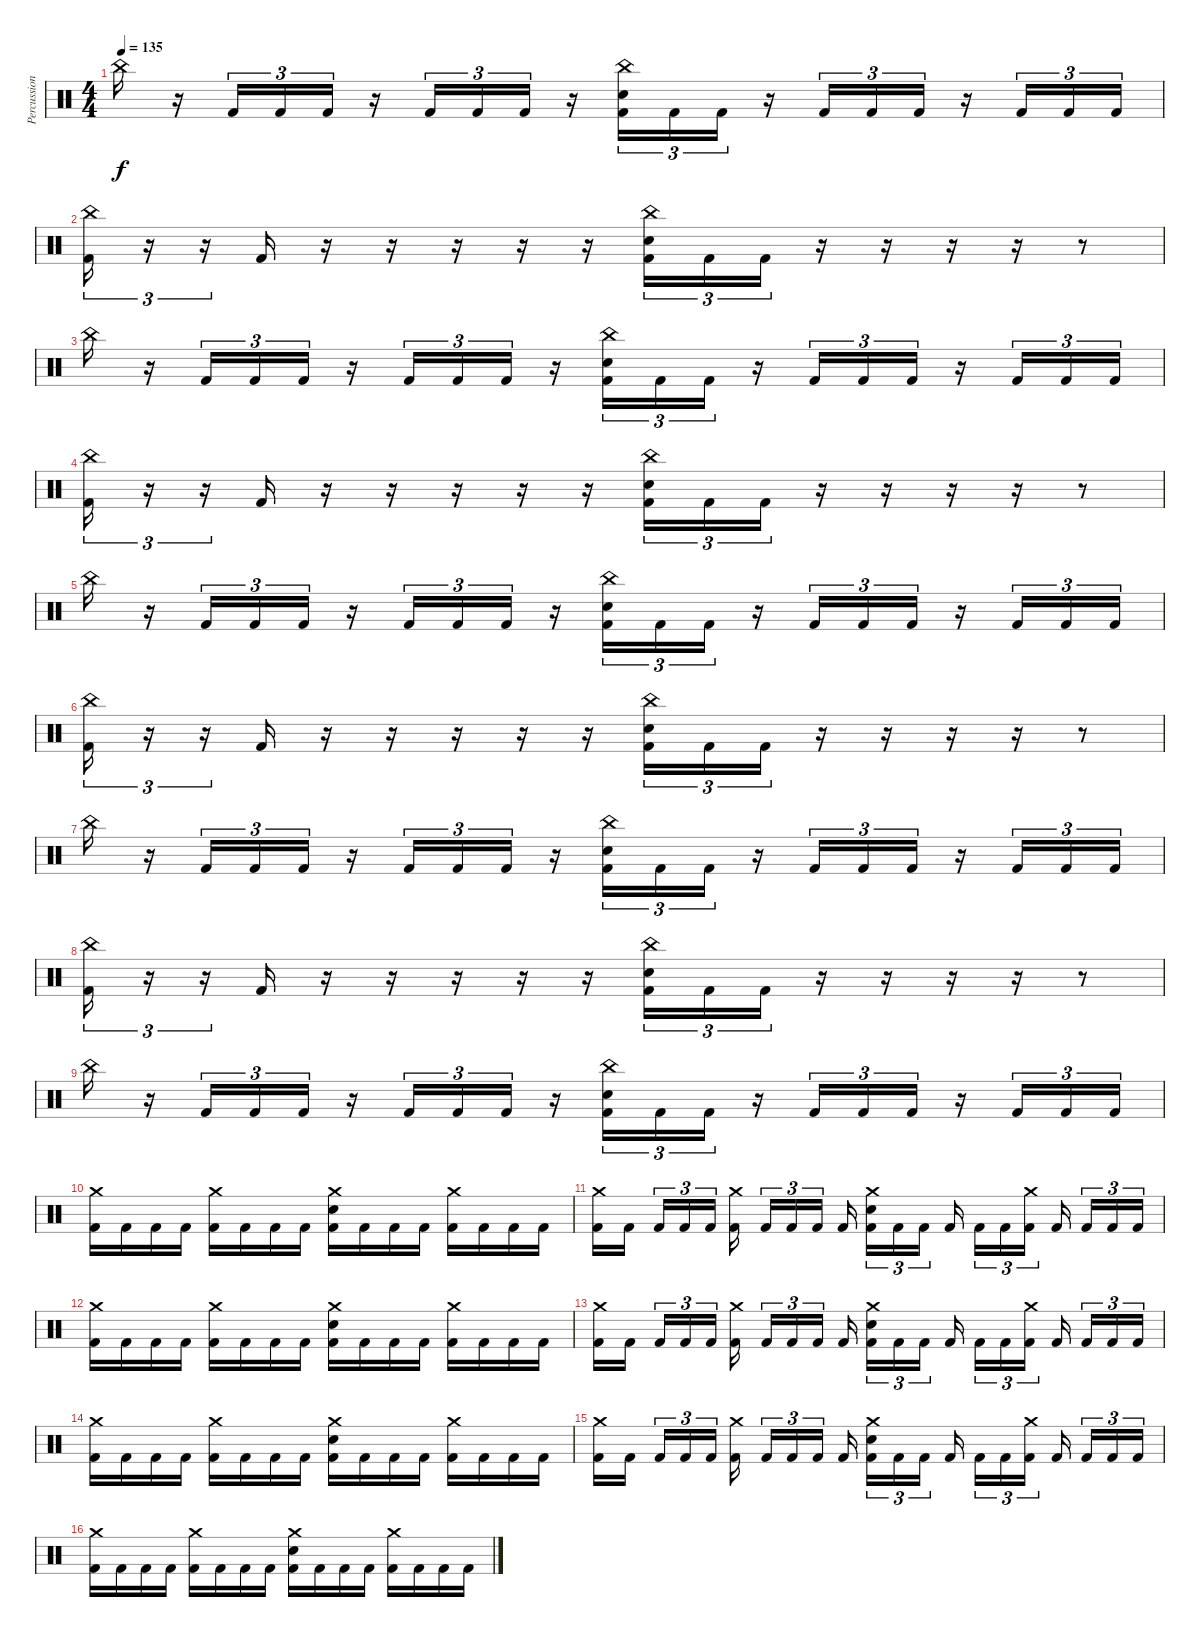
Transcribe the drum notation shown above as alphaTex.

\track ("Percussion" "Percussion") {instrument percussion}
\staff {score}
\articulation defaults
\ts (4 4)
\tempo 135
\clef neutral
\ks c "China (hit)".16{dy f}
r.16 "Kick (hit) 2".16{tu (3 2)} "Kick (hit) 2".16{tu (3 2)} "Kick (hit) 2".16{tu (3 2)} r.16 "Kick (hit) 2".16{tu (3 2)} "Kick (hit) 2".16{tu (3 2)} "Kick (hit) 2".16{tu (3 2)} r.16 ("China (hit)" "Electric Snare (hit)" "Kick (hit) 2").16{tu (3 2)} "Kick (hit) 2".16{tu (3 2)} "Kick (hit) 2".16{tu (3 2)} r.16 "Kick (hit) 2".16{tu (3 2)} "Kick (hit) 2".16{tu (3 2)} "Kick (hit) 2".16{tu (3 2)} r.16 "Kick (hit) 2".16{tu (3 2)} "Kick (hit) 2".16{tu (3 2)} "Kick (hit) 2".16{tu (3 2)} |
("China (hit)" "Kick (hit) 2").16{tu (3 2)} r.16{tu (3 2)} r.16{tu (3 2)} "Kick (hit) 2".16 r.16 r.16 r.16 r.16 r.16 ("China (hit)" "Electric Snare (hit)" "Kick (hit) 2").16{tu (3 2)} "Kick (hit) 2".16{tu (3 2)} "Kick (hit) 2".16{tu (3 2)} r.16 r.16 r.16 r.16 r.8 |
"China (hit)".16 r.16 "Kick (hit) 2".16{tu (3 2)} "Kick (hit) 2".16{tu (3 2)} "Kick (hit) 2".16{tu (3 2)} r.16 "Kick (hit) 2".16{tu (3 2)} "Kick (hit) 2".16{tu (3 2)} "Kick (hit) 2".16{tu (3 2)} r.16 ("China (hit)" "Electric Snare (hit)" "Kick (hit) 2").16{tu (3 2)} "Kick (hit) 2".16{tu (3 2)} "Kick (hit) 2".16{tu (3 2)} r.16 "Kick (hit) 2".16{tu (3 2)} "Kick (hit) 2".16{tu (3 2)} "Kick (hit) 2".16{tu (3 2)} r.16 "Kick (hit) 2".16{tu (3 2)} "Kick (hit) 2".16{tu (3 2)} "Kick (hit) 2".16{tu (3 2)} |
("China (hit)" "Kick (hit) 2").16{tu (3 2)} r.16{tu (3 2)} r.16{tu (3 2)} "Kick (hit) 2".16 r.16 r.16 r.16 r.16 r.16 ("China (hit)" "Electric Snare (hit)" "Kick (hit) 2").16{tu (3 2)} "Kick (hit) 2".16{tu (3 2)} "Kick (hit) 2".16{tu (3 2)} r.16 r.16 r.16 r.16 r.8 |
"China (hit)".16 r.16 "Kick (hit) 2".16{tu (3 2)} "Kick (hit) 2".16{tu (3 2)} "Kick (hit) 2".16{tu (3 2)} r.16 "Kick (hit) 2".16{tu (3 2)} "Kick (hit) 2".16{tu (3 2)} "Kick (hit) 2".16{tu (3 2)} r.16 ("China (hit)" "Electric Snare (hit)" "Kick (hit) 2").16{tu (3 2)} "Kick (hit) 2".16{tu (3 2)} "Kick (hit) 2".16{tu (3 2)} r.16 "Kick (hit) 2".16{tu (3 2)} "Kick (hit) 2".16{tu (3 2)} "Kick (hit) 2".16{tu (3 2)} r.16 "Kick (hit) 2".16{tu (3 2)} "Kick (hit) 2".16{tu (3 2)} "Kick (hit) 2".16{tu (3 2)} |
("China (hit)" "Kick (hit) 2").16{tu (3 2)} r.16{tu (3 2)} r.16{tu (3 2)} "Kick (hit) 2".16 r.16 r.16 r.16 r.16 r.16 ("China (hit)" "Electric Snare (hit)" "Kick (hit) 2").16{tu (3 2)} "Kick (hit) 2".16{tu (3 2)} "Kick (hit) 2".16{tu (3 2)} r.16 r.16 r.16 r.16 r.8 |
"China (hit)".16 r.16 "Kick (hit) 2".16{tu (3 2)} "Kick (hit) 2".16{tu (3 2)} "Kick (hit) 2".16{tu (3 2)} r.16 "Kick (hit) 2".16{tu (3 2)} "Kick (hit) 2".16{tu (3 2)} "Kick (hit) 2".16{tu (3 2)} r.16 ("China (hit)" "Electric Snare (hit)" "Kick (hit) 2").16{tu (3 2)} "Kick (hit) 2".16{tu (3 2)} "Kick (hit) 2".16{tu (3 2)} r.16 "Kick (hit) 2".16{tu (3 2)} "Kick (hit) 2".16{tu (3 2)} "Kick (hit) 2".16{tu (3 2)} r.16 "Kick (hit) 2".16{tu (3 2)} "Kick (hit) 2".16{tu (3 2)} "Kick (hit) 2".16{tu (3 2)} |
("China (hit)" "Kick (hit) 2").16{tu (3 2)} r.16{tu (3 2)} r.16{tu (3 2)} "Kick (hit) 2".16 r.16 r.16 r.16 r.16 r.16 ("China (hit)" "Electric Snare (hit)" "Kick (hit) 2").16{tu (3 2)} "Kick (hit) 2".16{tu (3 2)} "Kick (hit) 2".16{tu (3 2)} r.16 r.16 r.16 r.16 r.8 |
"China (hit)".16 r.16 "Kick (hit) 2".16{tu (3 2)} "Kick (hit) 2".16{tu (3 2)} "Kick (hit) 2".16{tu (3 2)} r.16 "Kick (hit) 2".16{tu (3 2)} "Kick (hit) 2".16{tu (3 2)} "Kick (hit) 2".16{tu (3 2)} r.16 ("China (hit)" "Electric Snare (hit)" "Kick (hit) 2").16{tu (3 2)} "Kick (hit) 2".16{tu (3 2)} "Kick (hit) 2".16{tu (3 2)} r.16 "Kick (hit) 2".16{tu (3 2)} "Kick (hit) 2".16{tu (3 2)} "Kick (hit) 2".16{tu (3 2)} r.16 "Kick (hit) 2".16{tu (3 2)} "Kick (hit) 2".16{tu (3 2)} "Kick (hit) 2".16{tu (3 2)} |
("Crash medium (hit)" "Kick (hit) 2").16 "Kick (hit) 2".16 "Kick (hit) 2".16 "Kick (hit) 2".16 ("Crash medium (hit)" "Kick (hit) 2").16 "Kick (hit) 2".16 "Kick (hit) 2".16 "Kick (hit) 2".16 ("Crash medium (hit)" "Electric Snare (hit)" "Kick (hit) 2").16 "Kick (hit) 2".16 "Kick (hit) 2".16 "Kick (hit) 2".16 ("Crash medium (hit)" "Kick (hit) 2").16 "Kick (hit) 2".16 "Kick (hit) 2".16 "Kick (hit) 2".16 |
("Crash medium (hit)" "Kick (hit) 2").16 "Kick (hit) 2".16{beam splitsecondary} "Kick (hit) 2".16{tu (3 2)} "Kick (hit) 2".16{tu (3 2)} "Kick (hit) 2".16{tu (3 2)} ("Crash medium (hit)" "Kick (hit) 2").16{beam splitsecondary} "Kick (hit) 2".16{tu (3 2)} "Kick (hit) 2".16{tu (3 2)} "Kick (hit) 2".16{tu (3 2) beam splitsecondary} "Kick (hit) 2".16 ("Crash medium (hit)" "Electric Snare (hit)" "Kick (hit) 2").16{tu (3 2)} "Kick (hit) 2".16{tu (3 2)} "Kick (hit) 2".16{tu (3 2) beam splitsecondary} "Kick (hit) 2".16{beam splitsecondary} "Kick (hit) 2".16{tu (3 2)} "Kick (hit) 2".16{tu (3 2)} ("Crash medium (hit)" "Kick (hit) 2").16{tu (3 2) beam splitsecondary} "Kick (hit) 2".16{beam splitsecondary} "Kick (hit) 2".16{tu (3 2)} "Kick (hit) 2".16{tu (3 2)} "Kick (hit) 2".16{tu (3 2)} |
("Crash medium (hit)" "Kick (hit) 2").16 "Kick (hit) 2".16 "Kick (hit) 2".16 "Kick (hit) 2".16 ("Crash medium (hit)" "Kick (hit) 2").16 "Kick (hit) 2".16 "Kick (hit) 2".16 "Kick (hit) 2".16 ("Crash medium (hit)" "Electric Snare (hit)" "Kick (hit) 2").16 "Kick (hit) 2".16 "Kick (hit) 2".16 "Kick (hit) 2".16 ("Crash medium (hit)" "Kick (hit) 2").16 "Kick (hit) 2".16 "Kick (hit) 2".16 "Kick (hit) 2".16 |
("Crash medium (hit)" "Kick (hit) 2").16 "Kick (hit) 2".16{beam splitsecondary} "Kick (hit) 2".16{tu (3 2)} "Kick (hit) 2".16{tu (3 2)} "Kick (hit) 2".16{tu (3 2)} ("Crash medium (hit)" "Kick (hit) 2").16{beam splitsecondary} "Kick (hit) 2".16{tu (3 2)} "Kick (hit) 2".16{tu (3 2)} "Kick (hit) 2".16{tu (3 2) beam splitsecondary} "Kick (hit) 2".16 ("Crash medium (hit)" "Electric Snare (hit)" "Kick (hit) 2").16{tu (3 2)} "Kick (hit) 2".16{tu (3 2)} "Kick (hit) 2".16{tu (3 2) beam splitsecondary} "Kick (hit) 2".16{beam splitsecondary} "Kick (hit) 2".16{tu (3 2)} "Kick (hit) 2".16{tu (3 2)} ("Crash medium (hit)" "Kick (hit) 2").16{tu (3 2) beam splitsecondary} "Kick (hit) 2".16{beam splitsecondary} "Kick (hit) 2".16{tu (3 2)} "Kick (hit) 2".16{tu (3 2)} "Kick (hit) 2".16{tu (3 2)} |
("Crash medium (hit)" "Kick (hit) 2").16 "Kick (hit) 2".16 "Kick (hit) 2".16 "Kick (hit) 2".16 ("Crash medium (hit)" "Kick (hit) 2").16 "Kick (hit) 2".16 "Kick (hit) 2".16 "Kick (hit) 2".16 ("Crash medium (hit)" "Electric Snare (hit)" "Kick (hit) 2").16 "Kick (hit) 2".16 "Kick (hit) 2".16 "Kick (hit) 2".16 ("Crash medium (hit)" "Kick (hit) 2").16 "Kick (hit) 2".16 "Kick (hit) 2".16 "Kick (hit) 2".16 |
("Crash medium (hit)" "Kick (hit) 2").16 "Kick (hit) 2".16{beam splitsecondary} "Kick (hit) 2".16{tu (3 2)} "Kick (hit) 2".16{tu (3 2)} "Kick (hit) 2".16{tu (3 2)} ("Crash medium (hit)" "Kick (hit) 2").16{beam splitsecondary} "Kick (hit) 2".16{tu (3 2)} "Kick (hit) 2".16{tu (3 2)} "Kick (hit) 2".16{tu (3 2) beam splitsecondary} "Kick (hit) 2".16 ("Crash medium (hit)" "Electric Snare (hit)" "Kick (hit) 2").16{tu (3 2)} "Kick (hit) 2".16{tu (3 2)} "Kick (hit) 2".16{tu (3 2) beam splitsecondary} "Kick (hit) 2".16{beam splitsecondary} "Kick (hit) 2".16{tu (3 2)} "Kick (hit) 2".16{tu (3 2)} ("Crash medium (hit)" "Kick (hit) 2").16{tu (3 2) beam splitsecondary} "Kick (hit) 2".16{beam splitsecondary} "Kick (hit) 2".16{tu (3 2)} "Kick (hit) 2".16{tu (3 2)} "Kick (hit) 2".16{tu (3 2)} |
("Crash medium (hit)" "Kick (hit) 2").16 "Kick (hit) 2".16 "Kick (hit) 2".16 "Kick (hit) 2".16 ("Crash medium (hit)" "Kick (hit) 2").16 "Kick (hit) 2".16 "Kick (hit) 2".16 "Kick (hit) 2".16 ("Crash medium (hit)" "Electric Snare (hit)" "Kick (hit) 2").16 "Kick (hit) 2".16 "Kick (hit) 2".16 "Kick (hit) 2".16 ("Crash medium (hit)" "Kick (hit) 2").16 "Kick (hit) 2".16 "Kick (hit) 2".16 "Kick (hit) 2".16
